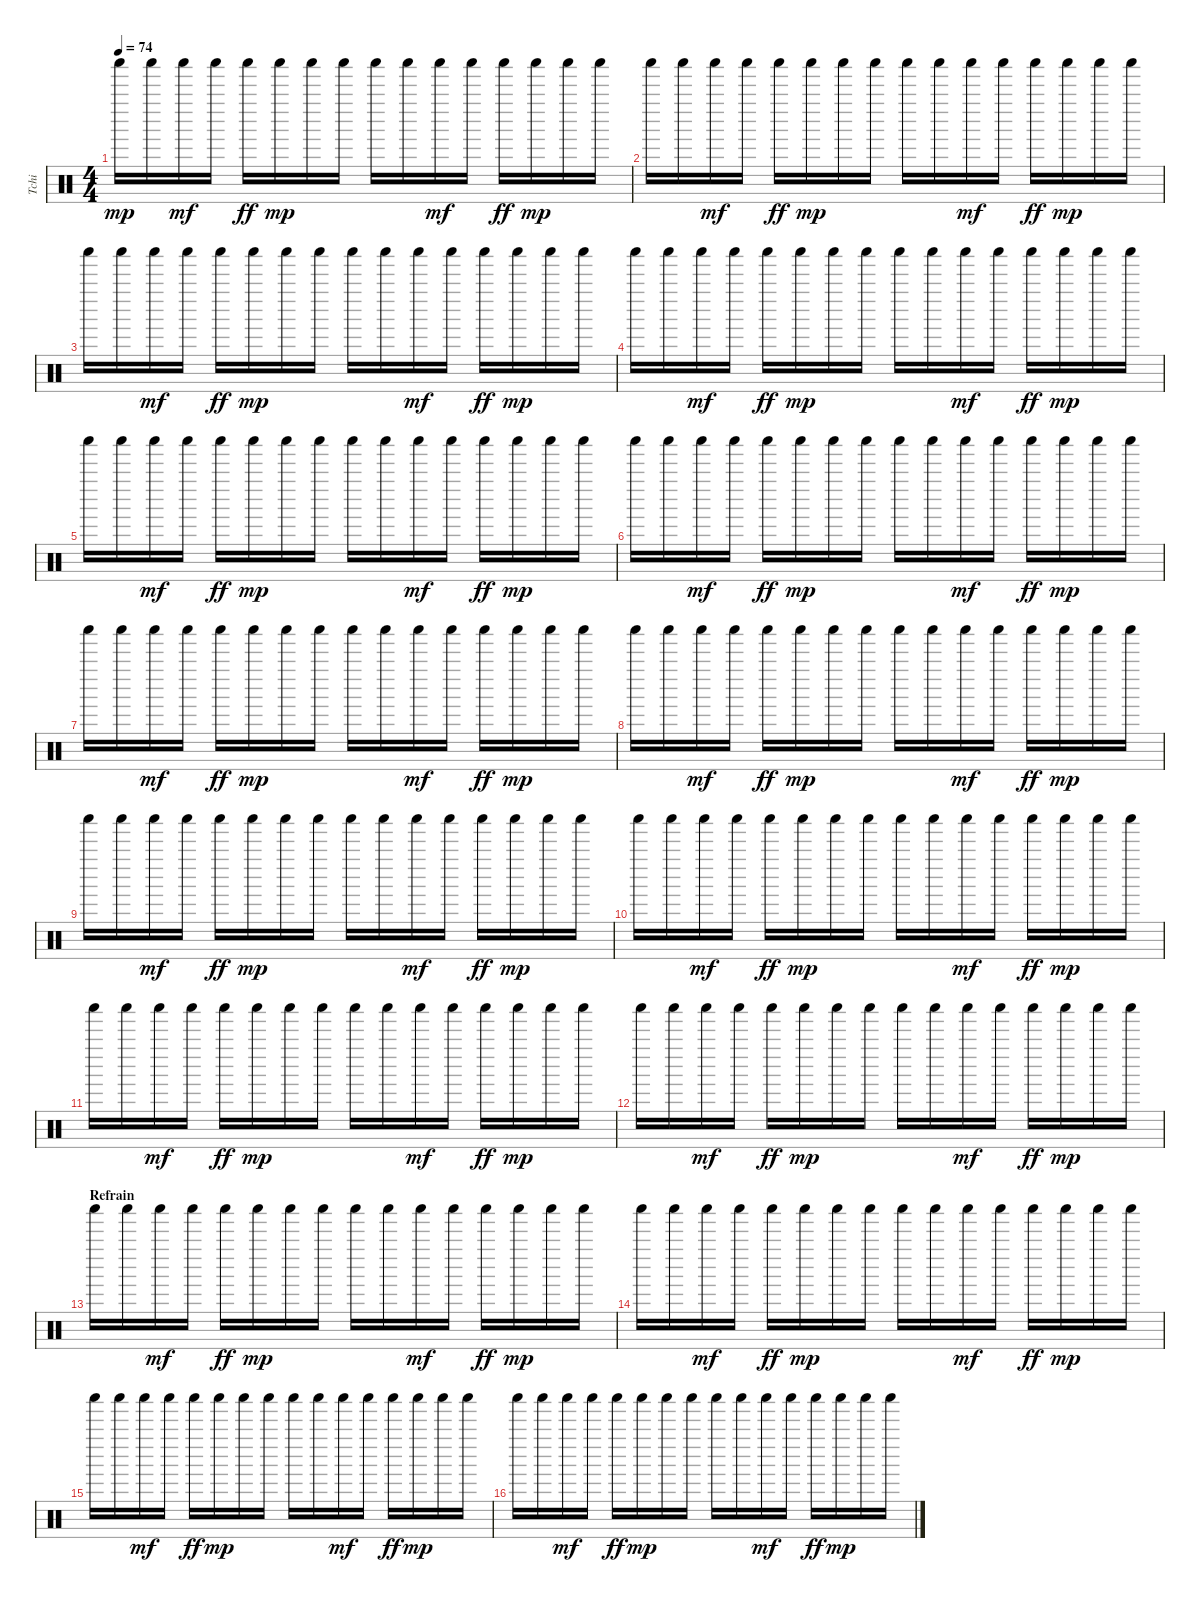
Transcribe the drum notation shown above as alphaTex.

\track ("Tchi" "Tchi") {instrument percussion}
\staff {score}
\articulation defaults
\ts (4 4)
\tempo 74
\clef neutral
\ks c "Shaker (hit)".16{dy mp} "Shaker (hit)".16 "Shaker (hit)".16{dy mf} "Shaker (hit)".16 "Shaker (hit)".16{dy ff} "Shaker (hit)".16{dy mp} "Shaker (hit)".16 "Shaker (hit)".16 "Shaker (hit)".16 "Shaker (hit)".16 "Shaker (hit)".16{dy mf} "Shaker (hit)".16 "Shaker (hit)".16{dy ff} "Shaker (hit)".16{dy mp} "Shaker (hit)".16 "Shaker (hit)".16
|
"Shaker (hit)".16 "Shaker (hit)".16 "Shaker (hit)".16{dy mf} "Shaker (hit)".16 "Shaker (hit)".16{dy ff} "Shaker (hit)".16{dy mp} "Shaker (hit)".16 "Shaker (hit)".16 "Shaker (hit)".16 "Shaker (hit)".16 "Shaker (hit)".16{dy mf} "Shaker (hit)".16 "Shaker (hit)".16{dy ff} "Shaker (hit)".16{dy mp} "Shaker (hit)".16 "Shaker (hit)".16 |
"Shaker (hit)".16 "Shaker (hit)".16 "Shaker (hit)".16{dy mf} "Shaker (hit)".16 "Shaker (hit)".16{dy ff} "Shaker (hit)".16{dy mp} "Shaker (hit)".16 "Shaker (hit)".16 "Shaker (hit)".16 "Shaker (hit)".16 "Shaker (hit)".16{dy mf} "Shaker (hit)".16 "Shaker (hit)".16{dy ff} "Shaker (hit)".16{dy mp} "Shaker (hit)".16 "Shaker (hit)".16 |
"Shaker (hit)".16 "Shaker (hit)".16 "Shaker (hit)".16{dy mf} "Shaker (hit)".16 "Shaker (hit)".16{dy ff} "Shaker (hit)".16{dy mp} "Shaker (hit)".16 "Shaker (hit)".16 "Shaker (hit)".16 "Shaker (hit)".16 "Shaker (hit)".16{dy mf} "Shaker (hit)".16 "Shaker (hit)".16{dy ff} "Shaker (hit)".16{dy mp} "Shaker (hit)".16 "Shaker (hit)".16 |
"Shaker (hit)".16 "Shaker (hit)".16 "Shaker (hit)".16{dy mf} "Shaker (hit)".16 "Shaker (hit)".16{dy ff} "Shaker (hit)".16{dy mp} "Shaker (hit)".16 "Shaker (hit)".16 "Shaker (hit)".16 "Shaker (hit)".16 "Shaker (hit)".16{dy mf} "Shaker (hit)".16 "Shaker (hit)".16{dy ff} "Shaker (hit)".16{dy mp} "Shaker (hit)".16 "Shaker (hit)".16 |
"Shaker (hit)".16 "Shaker (hit)".16 "Shaker (hit)".16{dy mf} "Shaker (hit)".16 "Shaker (hit)".16{dy ff} "Shaker (hit)".16{dy mp} "Shaker (hit)".16 "Shaker (hit)".16 "Shaker (hit)".16 "Shaker (hit)".16 "Shaker (hit)".16{dy mf} "Shaker (hit)".16 "Shaker (hit)".16{dy ff} "Shaker (hit)".16{dy mp} "Shaker (hit)".16 "Shaker (hit)".16 |
"Shaker (hit)".16 "Shaker (hit)".16 "Shaker (hit)".16{dy mf} "Shaker (hit)".16 "Shaker (hit)".16{dy ff} "Shaker (hit)".16{dy mp} "Shaker (hit)".16 "Shaker (hit)".16 "Shaker (hit)".16 "Shaker (hit)".16 "Shaker (hit)".16{dy mf} "Shaker (hit)".16 "Shaker (hit)".16{dy ff} "Shaker (hit)".16{dy mp} "Shaker (hit)".16 "Shaker (hit)".16 |
"Shaker (hit)".16 "Shaker (hit)".16 "Shaker (hit)".16{dy mf} "Shaker (hit)".16 "Shaker (hit)".16{dy ff} "Shaker (hit)".16{dy mp} "Shaker (hit)".16 "Shaker (hit)".16 "Shaker (hit)".16 "Shaker (hit)".16 "Shaker (hit)".16{dy mf} "Shaker (hit)".16 "Shaker (hit)".16{dy ff} "Shaker (hit)".16{dy mp} "Shaker (hit)".16 "Shaker (hit)".16 |
"Shaker (hit)".16 "Shaker (hit)".16 "Shaker (hit)".16{dy mf} "Shaker (hit)".16 "Shaker (hit)".16{dy ff} "Shaker (hit)".16{dy mp} "Shaker (hit)".16 "Shaker (hit)".16 "Shaker (hit)".16 "Shaker (hit)".16 "Shaker (hit)".16{dy mf} "Shaker (hit)".16 "Shaker (hit)".16{dy ff} "Shaker (hit)".16{dy mp} "Shaker (hit)".16 "Shaker (hit)".16 |
"Shaker (hit)".16 "Shaker (hit)".16 "Shaker (hit)".16{dy mf} "Shaker (hit)".16 "Shaker (hit)".16{dy ff} "Shaker (hit)".16{dy mp} "Shaker (hit)".16 "Shaker (hit)".16 "Shaker (hit)".16 "Shaker (hit)".16 "Shaker (hit)".16{dy mf} "Shaker (hit)".16 "Shaker (hit)".16{dy ff} "Shaker (hit)".16{dy mp} "Shaker (hit)".16 "Shaker (hit)".16 |
"Shaker (hit)".16 "Shaker (hit)".16 "Shaker (hit)".16{dy mf} "Shaker (hit)".16 "Shaker (hit)".16{dy ff} "Shaker (hit)".16{dy mp} "Shaker (hit)".16 "Shaker (hit)".16 "Shaker (hit)".16 "Shaker (hit)".16 "Shaker (hit)".16{dy mf} "Shaker (hit)".16 "Shaker (hit)".16{dy ff} "Shaker (hit)".16{dy mp} "Shaker (hit)".16 "Shaker (hit)".16 |
"Shaker (hit)".16 "Shaker (hit)".16 "Shaker (hit)".16{dy mf} "Shaker (hit)".16 "Shaker (hit)".16{dy ff} "Shaker (hit)".16{dy mp} "Shaker (hit)".16 "Shaker (hit)".16 "Shaker (hit)".16 "Shaker (hit)".16 "Shaker (hit)".16{dy mf} "Shaker (hit)".16 "Shaker (hit)".16{dy ff} "Shaker (hit)".16{dy mp} "Shaker (hit)".16 "Shaker (hit)".16 |
\section ("" "Refrain")
"Shaker (hit)".16 "Shaker (hit)".16 "Shaker (hit)".16{dy mf} "Shaker (hit)".16 "Shaker (hit)".16{dy ff} "Shaker (hit)".16{dy mp} "Shaker (hit)".16 "Shaker (hit)".16 "Shaker (hit)".16 "Shaker (hit)".16 "Shaker (hit)".16{dy mf} "Shaker (hit)".16 "Shaker (hit)".16{dy ff} "Shaker (hit)".16{dy mp} "Shaker (hit)".16 "Shaker (hit)".16 |
"Shaker (hit)".16 "Shaker (hit)".16 "Shaker (hit)".16{dy mf} "Shaker (hit)".16 "Shaker (hit)".16{dy ff} "Shaker (hit)".16{dy mp} "Shaker (hit)".16 "Shaker (hit)".16 "Shaker (hit)".16 "Shaker (hit)".16 "Shaker (hit)".16{dy mf} "Shaker (hit)".16 "Shaker (hit)".16{dy ff} "Shaker (hit)".16{dy mp} "Shaker (hit)".16 "Shaker (hit)".16 |
"Shaker (hit)".16 "Shaker (hit)".16 "Shaker (hit)".16{dy mf} "Shaker (hit)".16 "Shaker (hit)".16{dy ff} "Shaker (hit)".16{dy mp} "Shaker (hit)".16 "Shaker (hit)".16 "Shaker (hit)".16 "Shaker (hit)".16 "Shaker (hit)".16{dy mf} "Shaker (hit)".16 "Shaker (hit)".16{dy ff} "Shaker (hit)".16{dy mp} "Shaker (hit)".16 "Shaker (hit)".16 |
"Shaker (hit)".16 "Shaker (hit)".16 "Shaker (hit)".16{dy mf} "Shaker (hit)".16 "Shaker (hit)".16{dy ff} "Shaker (hit)".16{dy mp} "Shaker (hit)".16 "Shaker (hit)".16 "Shaker (hit)".16 "Shaker (hit)".16 "Shaker (hit)".16{dy mf} "Shaker (hit)".16 "Shaker (hit)".16{dy ff} "Shaker (hit)".16{dy mp} "Shaker (hit)".16 "Shaker (hit)".16
